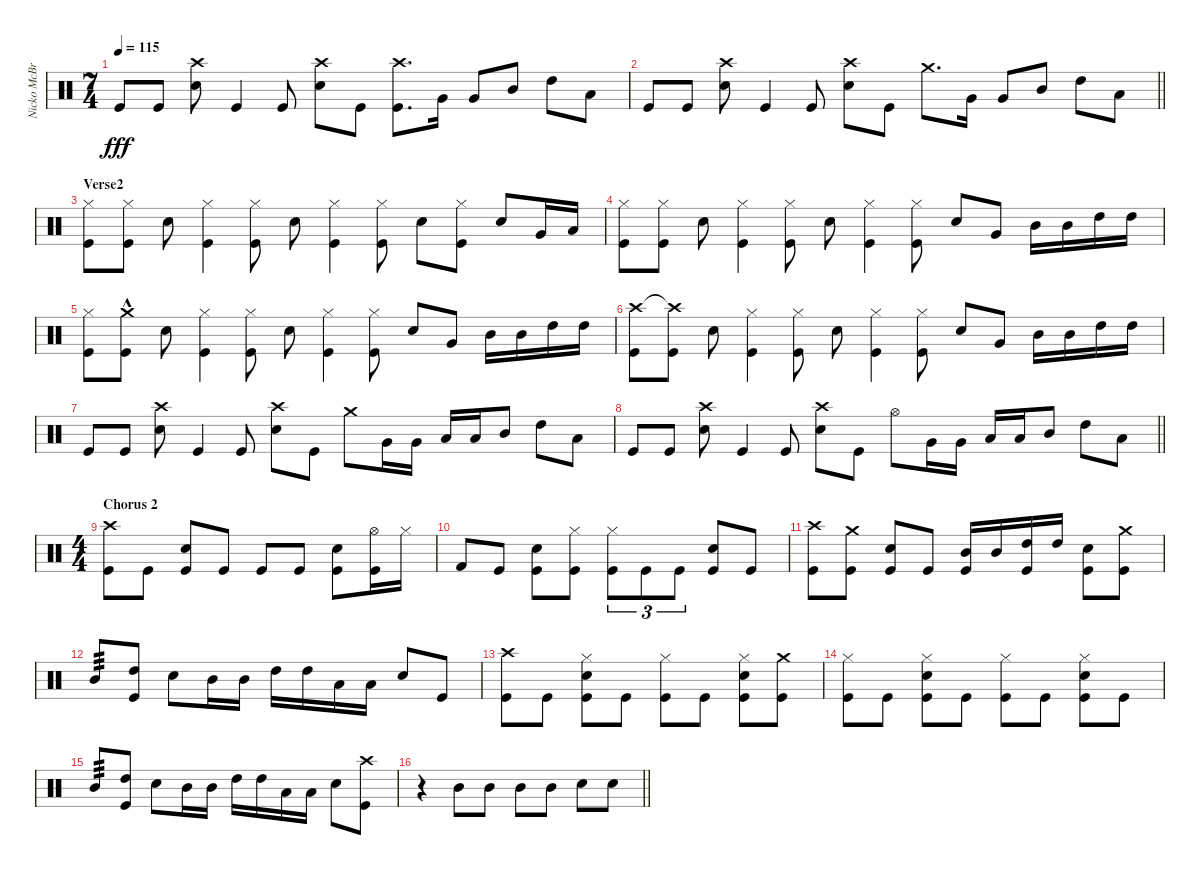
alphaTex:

\track ("Nicko McBrain" "Nicko McBr") {instrument percussion}
\staff {score}
\articulation defaults
\ts (7 4)
\tempo 115
\clef neutral
\ks c "Kick (hit)".8{dy fff} "Kick (hit)".8
("Crash high (hit)" "Electric Snare (hit)").8 "Kick (hit)".4 "Kick (hit)".8 ("Crash high (hit)" "Electric Snare (hit)").8 "Kick (hit)".8 ("Crash high (hit)" "Kick (hit)").8{d} "Very Low Tom (hit)".16 "Very Low Tom (hit)".8 "Mid Tom (hit)".8 "High Tom (hit)".8 "Low Tom (hit)".8 |
\barLineRight lightlight "Kick (hit)".8 "Kick (hit)".8
("Crash high (hit)" "Electric Snare (hit)").8 "Kick (hit)".4 "Kick (hit)".8 ("Crash high (hit)" "Electric Snare (hit)").8 "Kick (hit)".8 "Crash medium (hit)".8{d} "Very Low Tom (hit)".16 "Very Low Tom (hit)".8 "Mid Tom (hit)".8 "High Tom (hit)".8 "Low Tom (hit)".8 |
\section ("" "Verse2")
("Hi-Hat (closed)" "Kick (hit)").8 ("Hi-Hat (closed)" "Kick (hit)").8 "Electric Snare (hit)".8 ("Hi-Hat (closed)" "Kick (hit)").4 ("Hi-Hat (closed)" "Kick (hit)").8 "Electric Snare (hit)".8 ("Hi-Hat (closed)" "Kick (hit)").4 ("Hi-Hat (closed)" "Kick (hit)").8 "Electric Snare (hit)".8 ("Hi-Hat (closed)" "Kick (hit)").8 "Electric Snare (hit)".8 "Very Low Tom (hit)".16 "Low Tom (hit)".16 |
("Hi-Hat (closed)" "Kick (hit)").8 ("Hi-Hat (closed)" "Kick (hit)").8 "Electric Snare (hit)".8 ("Hi-Hat (closed)" "Kick (hit)").4 ("Hi-Hat (closed)" "Kick (hit)").8 "Electric Snare (hit)".8 ("Hi-Hat (closed)" "Kick (hit)").4 ("Hi-Hat (closed)" "Kick (hit)").8 "Electric Snare (hit)".8 "Very Low Tom (hit)".8 "Mid Tom (hit)".16 "Mid Tom (hit)".16 "High Tom (hit)".16 "High Tom (hit)".16 |
("Hi-Hat (closed)" "Kick (hit)").8 ("Crash medium (hit)"{hac} "Kick (hit)").8 "Electric Snare (hit)".8 ("Hi-Hat (closed)" "Kick (hit)").4 ("Hi-Hat (closed)" "Kick (hit)").8 "Electric Snare (hit)".8 ("Hi-Hat (closed)" "Kick (hit)").4 ("Hi-Hat (closed)" "Kick (hit)").8 "Electric Snare (hit)".8 "Very Low Tom (hit)".8 "Mid Tom (hit)".16 "Mid Tom (hit)".16 "High Tom (hit)".16 "High Tom (hit)".16 |
("Crash high (hit)" "Kick (hit)").8 ("Crash high (hit)"{t} "Kick (hit)").8 "Electric Snare (hit)".8 ("Hi-Hat (closed)" "Kick (hit)").4 ("Hi-Hat (closed)" "Kick (hit)").8 "Electric Snare (hit)".8 ("Hi-Hat (closed)" "Kick (hit)").4 ("Hi-Hat (closed)" "Kick (hit)").8 "Electric Snare (hit)".8 "Very Low Tom (hit)".8 "Mid Tom (hit)".16 "Mid Tom (hit)".16 "High Tom (hit)".16 "High Tom (hit)".16 |
"Kick (hit)".8 "Kick (hit)".8 ("Crash high (hit)" "Electric Snare (hit)").8 "Kick (hit)".4 "Kick (hit)".8 ("Crash high (hit)" "Electric Snare (hit)").8 "Kick (hit)".8 "Crash medium (hit)".8 "Very Low Tom (hit)".16 "Very Low Tom (hit)".16 "Low Tom (hit)".16 "Low Tom (hit)".16 "Mid Tom (hit)".8 "High Tom (hit)".8 "Low Tom (hit)".8 |
\barLineRight lightlight "Kick (hit)".8 "Kick (hit)".8
("Crash high (hit)" "Electric Snare (hit)").8 "Kick (hit)".4 "Kick (hit)".8 ("Crash high (hit)" "Electric Snare (hit)").8 "Kick (hit)".8 "Hi-Hat (open)".8 "Very Low Tom (hit)".16 "Very Low Tom (hit)".16 "Low Tom (hit)".16 "Low Tom (hit)".16 "Mid Tom (hit)".8 "High Tom (hit)".8 "Low Tom (hit)".8 |
\ts (4 4)
\section ("" "Chorus 2")
("Crash high (hit)" "Kick (hit)").8 "Kick (hit)".8 ("Kick (hit)" "Electric Snare (hit)").8 "Kick (hit)".8 "Kick (hit)".8 "Kick (hit)".8 ("Kick (hit)" "Electric Snare (hit)").8 ("Hi-Hat (open)" "Kick (hit)").16 "Hi-Hat (closed)".16 |
"Kick (hit) 2".8 "Kick (hit)".8 ("Kick (hit)" "Electric Snare (hit)").8 ("Hi-Hat (closed)" "Kick (hit)").8 ("Hi-Hat (closed)" "Kick (hit)").8{tu (3 2)} "Kick (hit)".8{tu (3 2)} "Kick (hit)".8{tu (3 2)} ("Kick (hit)" "Electric Snare (hit)").8 "Kick (hit)".8 |
("Crash high (hit)" "Kick (hit)").8 ("Crash medium (hit)" "Kick (hit)").8 ("Kick (hit)" "Electric Snare (hit)").8 "Kick (hit)".8 ("Mid Tom (hit)" "Kick (hit)").16 "Mid Tom (hit)".16 ("High Tom (hit)" "Kick (hit)").16 "High Tom (hit)".16 ("Kick (hit)" "Electric Snare (hit)").8 ("Crash medium (hit)" "Kick (hit)").8 |
"Mid Tom (hit)".8{tp 3} ("High Tom (hit)" "Kick (hit)").8 "Electric Snare (hit)".8 "Mid Tom (hit)".16 "Mid Tom (hit)".16 "High Tom (hit)".16 "High Tom (hit)".16 "Low Tom (hit)".16 "Low Tom (hit)".16 "Electric Snare (hit)".8 "Kick (hit)".8 |
("Crash high (hit)" "Kick (hit)").8 "Kick (hit)".8 ("Hi-Hat (closed)" "Kick (hit)" "Electric Snare (hit)").8 "Kick (hit)".8 ("Hi-Hat (closed)" "Kick (hit)").8 "Kick (hit)".8 ("Hi-Hat (closed)" "Kick (hit)" "Electric Snare (hit)").8 ("Crash medium (hit)" "Kick (hit)").8 |
("Hi-Hat (closed)" "Kick (hit)").8 "Kick (hit)".8 ("Hi-Hat (closed)" "Kick (hit)" "Electric Snare (hit)").8 "Kick (hit)".8 ("Hi-Hat (closed)" "Kick (hit)").8 "Kick (hit)".8 ("Hi-Hat (closed)" "Kick (hit)" "Electric Snare (hit)").8 "Kick (hit)".8 |
"Mid Tom (hit)".8{tp 3} ("High Tom (hit)" "Kick (hit)").8 "Electric Snare (hit)".8 "Mid Tom (hit)".16 "Mid Tom (hit)".16 "High Tom (hit)".16 "High Tom (hit)".16 "Low Tom (hit)".16 "Low Tom (hit)".16 "Electric Snare (hit)".8 ("Crash high (hit)" "Kick (hit)").8 |
\barLineRight lightlight
r.4 "Mid Tom (hit)".8 "Mid Tom (hit)".8 "Mid Tom (hit)".8 "Mid Tom (hit)".8 "Electric Snare (hit)".8 "Electric Snare (hit)".8
